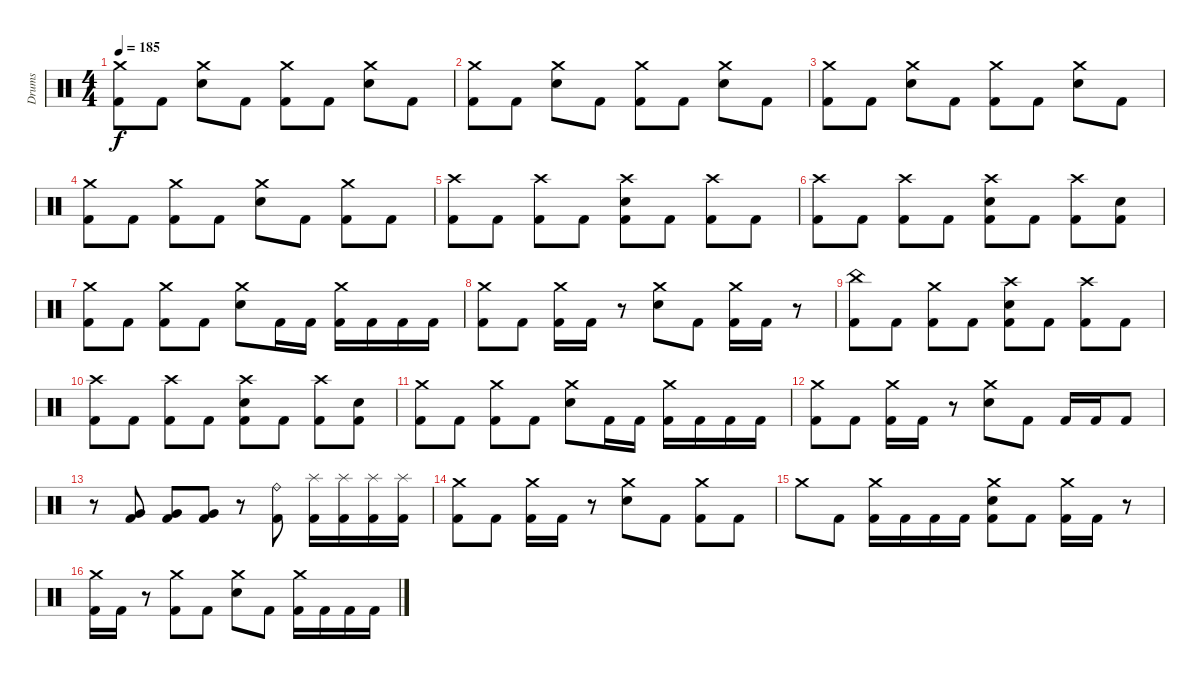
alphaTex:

\track ("Drums" "Drums") {instrument percussion}
\staff {score}
\articulation defaults
\ts (4 4)
\tempo 185
\clef neutral
\ks c
("Crash medium (hit)" "Kick (hit) 2").8{dy f} "Kick (hit) 2".8 ("Crash medium (hit)" "Electric Snare (hit)").8 "Kick (hit) 2".8 ("Crash medium (hit)" "Kick (hit) 2").8 "Kick (hit) 2".8 ("Crash medium (hit)" "Electric Snare (hit)").8 "Kick (hit) 2".8 |
("Crash medium (hit)" "Kick (hit) 2").8 "Kick (hit) 2".8 ("Crash medium (hit)" "Electric Snare (hit)").8 "Kick (hit) 2".8 ("Crash medium (hit)" "Kick (hit) 2").8 "Kick (hit) 2".8 ("Crash medium (hit)" "Electric Snare (hit)").8 "Kick (hit) 2".8 |
("Crash medium (hit)" "Kick (hit) 2").8 "Kick (hit) 2".8 ("Crash medium (hit)" "Electric Snare (hit)").8 "Kick (hit) 2".8 ("Crash medium (hit)" "Kick (hit) 2").8 "Kick (hit) 2".8 ("Crash medium (hit)" "Electric Snare (hit)").8 "Kick (hit) 2".8 |
("Crash medium (hit)" "Kick (hit) 2").8 "Kick (hit) 2".8 ("Crash medium (hit)" "Kick (hit) 2").8 "Kick (hit) 2".8 ("Crash medium (hit)" "Electric Snare (hit)").8 "Kick (hit) 2".8 ("Crash medium (hit)" "Kick (hit) 2").8 "Kick (hit) 2".8 |
("Crash high (hit)" "Kick (hit) 2").8 "Kick (hit) 2".8 ("Crash high (hit)" "Kick (hit) 2").8 "Kick (hit) 2".8 ("Crash high (hit)" "Electric Snare (hit)" "Kick (hit) 2").8 "Kick (hit) 2".8 ("Crash high (hit)" "Kick (hit) 2").8 "Kick (hit) 2".8 |
("Crash high (hit)" "Kick (hit) 2").8 "Kick (hit) 2".8 ("Crash high (hit)" "Kick (hit) 2").8 "Kick (hit) 2".8 ("Crash high (hit)" "Electric Snare (hit)" "Kick (hit) 2").8 "Kick (hit) 2".8 ("Crash high (hit)" "Kick (hit) 2").8 ("Electric Snare (hit)" "Kick (hit) 2").8 |
("Crash medium (hit)" "Kick (hit) 2").8 "Kick (hit) 2".8 ("Crash medium (hit)" "Kick (hit) 2").8 "Kick (hit) 2".8 ("Crash medium (hit)" "Electric Snare (hit)").8 "Kick (hit) 2".16 "Kick (hit) 2".16 ("Crash medium (hit)" "Kick (hit) 2").16 "Kick (hit) 2".16 "Kick (hit) 2".16 "Kick (hit) 2".16 |
("Crash medium (hit)" "Kick (hit) 2").8 "Kick (hit) 2".8 ("Crash medium (hit)" "Kick (hit) 2").16 "Kick (hit) 2".16 r.8 ("Crash medium (hit)" "Electric Snare (hit)").8 "Kick (hit) 2".8 ("Crash medium (hit)" "Kick (hit) 2").16 "Kick (hit) 2".16 r.8 |
("China (hit)" "Kick (hit) 2").8 "Kick (hit) 2".8 ("Crash medium (hit)" "Kick (hit) 2").8 "Kick (hit) 2".8 ("Crash high (hit)" "Electric Snare (hit)" "Kick (hit) 2").8 "Kick (hit) 2".8 ("Crash high (hit)" "Kick (hit) 2").8 "Kick (hit) 2".8 |
("Crash high (hit)" "Kick (hit) 2").8 "Kick (hit) 2".8 ("Crash high (hit)" "Kick (hit) 2").8 "Kick (hit) 2".8 ("Crash high (hit)" "Electric Snare (hit)" "Kick (hit) 2").8 "Kick (hit) 2".8 ("Crash high (hit)" "Kick (hit) 2").8 ("Electric Snare (hit)" "Kick (hit) 2").8 |
("Crash medium (hit)" "Kick (hit) 2").8 "Kick (hit) 2".8 ("Crash medium (hit)" "Kick (hit) 2").8 "Kick (hit) 2".8 ("Crash medium (hit)" "Electric Snare (hit)").8 "Kick (hit) 2".16 "Kick (hit) 2".16 ("Crash medium (hit)" "Kick (hit) 2").16 "Kick (hit) 2".16 "Kick (hit) 2".16 "Kick (hit) 2".16 |
("Crash medium (hit)" "Kick (hit) 2").8 "Kick (hit) 2".8 ("Crash medium (hit)" "Kick (hit) 2").16 "Kick (hit) 2".16 r.8 ("Crash medium (hit)" "Electric Snare (hit)").8 "Kick (hit) 2".8 "Kick (hit) 2".16 "Kick (hit) 2".16 "Kick (hit) 2".8 |
r.8 ("Very Low Tom (hit)" "Kick (hit) 2").8 ("Very Low Tom (hit)" "Kick (hit) 2").8 ("Very Low Tom (hit)" "Kick (hit) 2").8 r.8 ("Ride (bell)" "Kick (hit) 2").8 ("Splash (hit)" "Kick (hit) 2").16 ("Splash (hit)" "Kick (hit) 2").16 ("Splash (hit)" "Kick (hit) 2").16 ("Splash (hit)" "Kick (hit) 2").16 |
("Crash medium (hit)" "Kick (hit) 2").8 "Kick (hit) 2".8 ("Crash medium (hit)" "Kick (hit) 2").16 "Kick (hit) 2".16 r.8 ("Crash medium (hit)" "Electric Snare (hit)").8 "Kick (hit) 2".8 ("Crash medium (hit)" "Kick (hit) 2").8 "Kick (hit) 2".8 |
"Crash medium (hit)".8 "Kick (hit) 2".8 ("Crash medium (hit)" "Kick (hit) 2").16 "Kick (hit) 2".16 "Kick (hit) 2".16 "Kick (hit) 2".16 ("Crash medium (hit)" "Electric Snare (hit)" "Kick (hit) 2").8 "Kick (hit) 2".8 ("Crash medium (hit)" "Kick (hit) 2").16 "Kick (hit) 2".16 r.8 |
("Crash medium (hit)" "Kick (hit) 2").16 "Kick (hit) 2".16 r.8 ("Crash medium (hit)" "Kick (hit) 2").8 "Kick (hit) 2".8 ("Crash medium (hit)" "Electric Snare (hit)").8 "Kick (hit) 2".8 ("Crash medium (hit)" "Kick (hit) 2").16 "Kick (hit) 2".16 "Kick (hit) 2".16 "Kick (hit) 2".16
